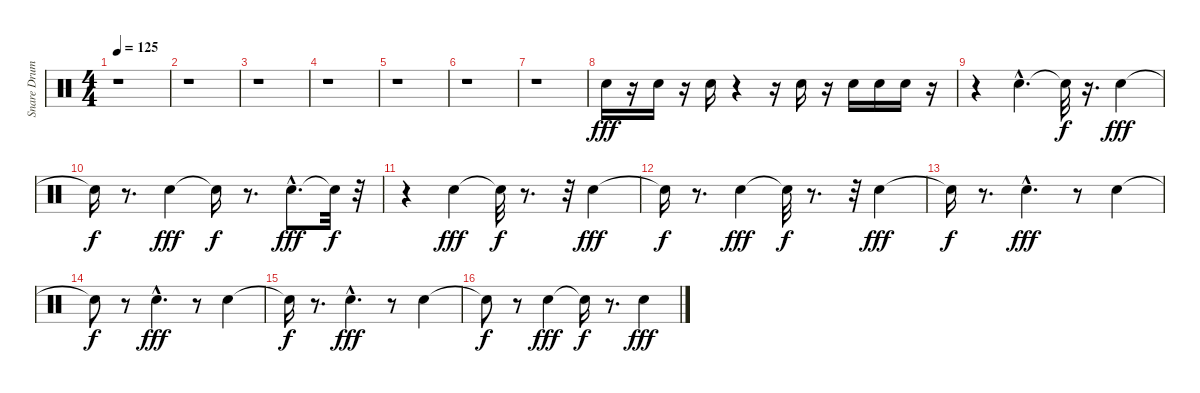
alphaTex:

\track ("Snare Drum      " "Snare Drum") {instrument percussion}
\staff {score}
\articulation defaults
\ts (4 4)
\tempo 125
\clef neutral
\ks c
r.1{dy fff} |
r.1 |
r.1 |
r.1 |
r.1 |
r.1 |
r.1 |
"Snare (hit) 2".16 r.16 "Snare (hit) 2".16 r.16 "Snare (hit) 2".16 r.4 r.16 "Snare (hit) 2".16 r.16 "Snare (hit) 2".16 "Snare (hit) 2".16 "Snare (hit) 2".16 r.16 |
r.4 "Snare (hit) 2"{hac}.4{d} "Snare (hit)"{t}.32{dy f} r.16{d} "Snare (hit) 2".4{dy fff} |
"Snare (hit)"{t}.16{dy f} r.8{d} "Snare (hit) 2".4{dy fff} "Snare (hit)"{t}.16{dy f} r.8{d} "Snare (hit) 2"{hac}.8{d dy fff} "Snare (hit)"{t}.32{dy f} r.32 |
r.4 "Snare (hit) 2".4{dy fff} "Snare (hit)"{t}.32{dy f} r.8{d} r.32 "Snare (hit) 2".4{dy fff} |
"Snare (hit)"{t}.16{dy f} r.8{d} "Snare (hit) 2".4{dy fff} "Snare (hit)"{t}.32{dy f} r.8{d} r.32 "Snare (hit) 2".4{dy fff} |
"Snare (hit)"{t}.16{dy f} r.8{d} "Snare (hit) 2"{hac}.4{d dy fff} r.8 "Snare (hit) 2".4 |
"Snare (hit)"{t}.8{dy f} r.8 "Snare (hit) 2"{hac}.4{d dy fff} r.8 "Snare (hit) 2".4 |
"Snare (hit)"{t}.16{dy f} r.8{d} "Snare (hit) 2"{hac}.4{d dy fff} r.8 "Snare (hit) 2".4 |
"Snare (hit)"{t}.8{dy f} r.8 "Snare (hit) 2".4{dy fff} "Snare (hit)"{t}.16{dy f} r.8{d} "Snare (hit) 2".4{dy fff}
